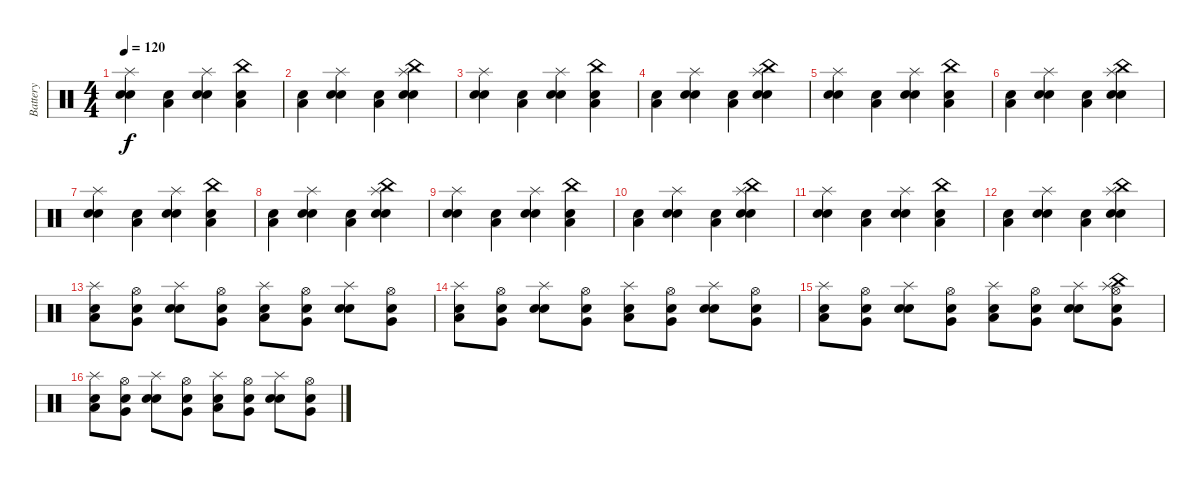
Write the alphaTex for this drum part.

\track ("Battery" "Battery") {instrument percussion}
\staff {score}
\articulation defaults
\ts (4 4)
\tempo 120
\clef neutral
\ks c
("Snare (hit) 2" "Electric Snare (hit)" "Splash (hit)").4{dy f} ("Snare (hit) 2" "Low Floor Tom (hit)").4 ("Snare (hit) 2" "Electric Snare (hit)" "Splash (hit)").4 ("Snare (hit) 2" "Low Floor Tom (hit)" "China (hit)").4 |
("Snare (hit) 2" "Low Floor Tom (hit)").4 ("Snare (hit) 2" "Electric Snare (hit)" "Splash (hit)").4 ("Snare (hit) 2" "Low Floor Tom (hit)").4 ("Snare (hit) 2" "Electric Snare (hit)" "Splash (hit)" "China (hit)").4 |
("Snare (hit) 2" "Electric Snare (hit)" "Splash (hit)").4 ("Snare (hit) 2" "Low Floor Tom (hit)").4 ("Snare (hit) 2" "Electric Snare (hit)" "Splash (hit)").4 ("Snare (hit) 2" "Low Floor Tom (hit)" "China (hit)").4 |
("Snare (hit) 2" "Low Floor Tom (hit)").4 ("Snare (hit) 2" "Electric Snare (hit)" "Splash (hit)").4 ("Snare (hit) 2" "Low Floor Tom (hit)").4 ("Snare (hit) 2" "Electric Snare (hit)" "Splash (hit)" "China (hit)").4 |
("Snare (hit) 2" "Electric Snare (hit)" "Splash (hit)").4 ("Snare (hit) 2" "Low Floor Tom (hit)").4 ("Snare (hit) 2" "Electric Snare (hit)" "Splash (hit)").4 ("Snare (hit) 2" "Low Floor Tom (hit)" "China (hit)").4 |
("Snare (hit) 2" "Low Floor Tom (hit)").4 ("Snare (hit) 2" "Electric Snare (hit)" "Splash (hit)").4 ("Snare (hit) 2" "Low Floor Tom (hit)").4 ("Snare (hit) 2" "Electric Snare (hit)" "Splash (hit)" "China (hit)").4 |
("Snare (hit) 2" "Electric Snare (hit)" "Splash (hit)").4 ("Snare (hit) 2" "Low Floor Tom (hit)").4 ("Snare (hit) 2" "Electric Snare (hit)" "Splash (hit)").4 ("Snare (hit) 2" "Low Floor Tom (hit)" "China (hit)").4 |
("Snare (hit) 2" "Low Floor Tom (hit)").4 ("Snare (hit) 2" "Electric Snare (hit)" "Splash (hit)").4 ("Snare (hit) 2" "Low Floor Tom (hit)").4 ("Snare (hit) 2" "Electric Snare (hit)" "Splash (hit)" "China (hit)").4 |
("Snare (hit) 2" "Electric Snare (hit)" "Splash (hit)").4 ("Snare (hit) 2" "Low Floor Tom (hit)").4 ("Snare (hit) 2" "Electric Snare (hit)" "Splash (hit)").4 ("Snare (hit) 2" "Low Floor Tom (hit)" "China (hit)").4 |
("Snare (hit) 2" "Low Floor Tom (hit)").4 ("Snare (hit) 2" "Electric Snare (hit)" "Splash (hit)").4 ("Snare (hit) 2" "Low Floor Tom (hit)").4 ("Snare (hit) 2" "Electric Snare (hit)" "Splash (hit)" "China (hit)").4 |
("Snare (hit) 2" "Electric Snare (hit)" "Splash (hit)").4 ("Snare (hit) 2" "Low Floor Tom (hit)").4 ("Snare (hit) 2" "Electric Snare (hit)" "Splash (hit)").4 ("Snare (hit) 2" "Low Floor Tom (hit)" "China (hit)").4 |
("Snare (hit) 2" "Low Floor Tom (hit)").4 ("Snare (hit) 2" "Electric Snare (hit)" "Splash (hit)").4 ("Snare (hit) 2" "Low Floor Tom (hit)").4 ("Snare (hit) 2" "Electric Snare (hit)" "Splash (hit)" "China (hit)").4 |
("Snare (hit) 2" "Low Floor Tom (hit)" "Splash (hit)").8 ("Snare (hit) 2" "Very Low Tom (hit)" "Hi-Hat (open)").8 ("Snare (hit) 2" "Electric Snare (hit)" "Splash (hit)").8 ("Snare (hit) 2" "Very Low Tom (hit)" "Hi-Hat (open)").8 ("Snare (hit) 2" "Low Floor Tom (hit)" "Splash (hit)").8 ("Snare (hit) 2" "Very Low Tom (hit)" "Hi-Hat (open)").8 ("Snare (hit) 2" "Electric Snare (hit)" "Splash (hit)").8 ("Snare (hit) 2" "Very Low Tom (hit)" "Hi-Hat (open)").8 |
("Snare (hit) 2" "Low Floor Tom (hit)" "Splash (hit)").8 ("Snare (hit) 2" "Very Low Tom (hit)" "Hi-Hat (open)").8 ("Snare (hit) 2" "Electric Snare (hit)" "Splash (hit)").8 ("Snare (hit) 2" "Very Low Tom (hit)" "Hi-Hat (open)").8 ("Snare (hit) 2" "Low Floor Tom (hit)" "Splash (hit)").8 ("Snare (hit) 2" "Very Low Tom (hit)" "Hi-Hat (open)").8 ("Snare (hit) 2" "Electric Snare (hit)" "Splash (hit)").8 ("Snare (hit) 2" "Very Low Tom (hit)" "Hi-Hat (open)").8 |
("Snare (hit) 2" "Low Floor Tom (hit)" "Splash (hit)").8 ("Snare (hit) 2" "Very Low Tom (hit)" "Hi-Hat (open)").8 ("Snare (hit) 2" "Electric Snare (hit)" "Splash (hit)").8 ("Snare (hit) 2" "Very Low Tom (hit)" "Hi-Hat (open)").8 ("Snare (hit) 2" "Low Floor Tom (hit)" "Splash (hit)").8 ("Snare (hit) 2" "Very Low Tom (hit)" "Hi-Hat (open)").8 ("Snare (hit) 2" "Electric Snare (hit)" "Splash (hit)").8 ("Snare (hit) 2" "Very Low Tom (hit)" "Splash (hit)" "Hi-Hat (open)" "China (hit)").8 |
("Snare (hit) 2" "Low Floor Tom (hit)" "Splash (hit)").8 ("Snare (hit) 2" "Very Low Tom (hit)" "Hi-Hat (open)").8 ("Snare (hit) 2" "Electric Snare (hit)" "Splash (hit)").8 ("Snare (hit) 2" "Very Low Tom (hit)" "Hi-Hat (open)").8 ("Snare (hit) 2" "Low Floor Tom (hit)" "Splash (hit)").8 ("Snare (hit) 2" "Very Low Tom (hit)" "Hi-Hat (open)").8 ("Snare (hit) 2" "Electric Snare (hit)" "Splash (hit)").8 ("Snare (hit) 2" "Very Low Tom (hit)" "Hi-Hat (open)").8
